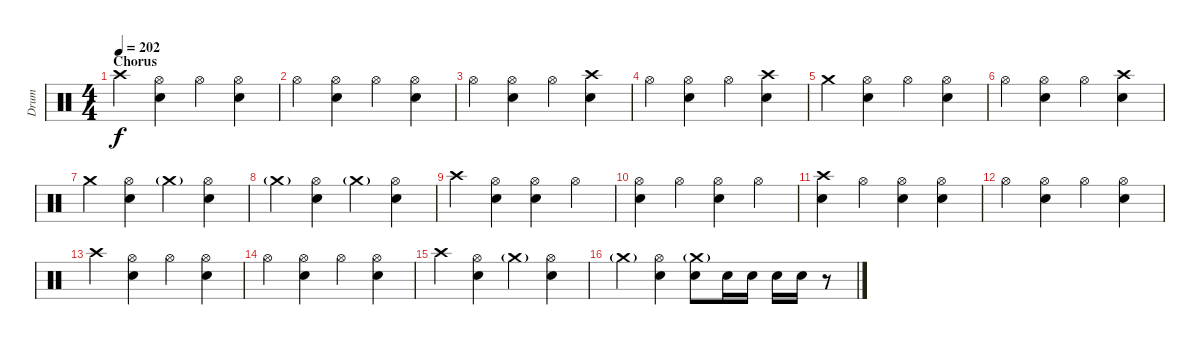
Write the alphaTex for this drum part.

\track ("Drum" "Drum") {instrument percussion}
\staff {score}
\articulation defaults
\ts (4 4)
\section ("" "Chorus")
\tempo 202
\clef neutral
\ks c "Crash high (hit)".4{dy f}
("Hi-Hat (open)" "Electric Snare (hit)").4 "Hi-Hat (open)".4 ("Hi-Hat (open)" "Electric Snare (hit)").4 |
"Hi-Hat (open)".4 ("Hi-Hat (open)" "Electric Snare (hit)").4 "Hi-Hat (open)".4 ("Hi-Hat (open)" "Electric Snare (hit)").4 |
"Hi-Hat (open)".4 ("Hi-Hat (open)" "Electric Snare (hit)").4 "Hi-Hat (open)".4 ("Crash high (hit)" "Electric Snare (hit)").4 |
"Hi-Hat (open)".4 ("Hi-Hat (open)" "Electric Snare (hit)").4 "Hi-Hat (open)".4 ("Crash high (hit)" "Electric Snare (hit)").4 |
"Crash medium (hit)".4 ("Hi-Hat (open)" "Electric Snare (hit)").4 "Hi-Hat (open)".4 ("Hi-Hat (open)" "Electric Snare (hit)").4 |
"Hi-Hat (open)".4 ("Hi-Hat (open)" "Electric Snare (hit)").4 "Hi-Hat (open)".4 ("Crash high (hit)" "Electric Snare (hit)").4 |
"Crash medium (hit)".4 ("Hi-Hat (open)" "Electric Snare (hit)").4 "Crash medium (hit)"{g}.4 ("Hi-Hat (open)" "Electric Snare (hit)").4 |
"Crash medium (hit)"{g}.4 ("Hi-Hat (open)" "Electric Snare (hit)").4 "Crash medium (hit)"{g}.4 ("Hi-Hat (open)" "Electric Snare (hit)").4 |
"Crash high (hit)".4 ("Hi-Hat (open)" "Electric Snare (hit)").4 ("Hi-Hat (open)" "Electric Snare (hit)").4 "Hi-Hat (open)".4 |
("Hi-Hat (open)" "Electric Snare (hit)").4 "Hi-Hat (open)".4 ("Hi-Hat (open)" "Electric Snare (hit)").4 "Hi-Hat (open)".4 |
("Crash high (hit)" "Electric Snare (hit)").4 "Hi-Hat (open)".4 ("Hi-Hat (open)" "Electric Snare (hit)").4 ("Hi-Hat (open)" "Electric Snare (hit)").4 |
"Hi-Hat (open)".4 ("Hi-Hat (open)" "Electric Snare (hit)").4 "Hi-Hat (open)".4 ("Hi-Hat (open)" "Electric Snare (hit)").4 |
"Crash high (hit)".4 ("Hi-Hat (open)" "Electric Snare (hit)").4 "Hi-Hat (open)".4 ("Hi-Hat (open)" "Electric Snare (hit)").4 |
"Hi-Hat (open)".4 ("Hi-Hat (open)" "Electric Snare (hit)").4 "Hi-Hat (open)".4 ("Hi-Hat (open)" "Electric Snare (hit)").4 |
"Crash high (hit)".4 ("Hi-Hat (open)" "Electric Snare (hit)").4 "Crash medium (hit)"{g}.4 ("Hi-Hat (open)" "Electric Snare (hit)").4 |
"Crash medium (hit)"{g}.4 ("Hi-Hat (open)" "Electric Snare (hit)").4 ("Crash medium (hit)"{g} "Electric Snare (hit)").8 "Electric Snare (hit)".16 "Electric Snare (hit)".16 "Electric Snare (hit)".16 "Electric Snare (hit)".16 r.8
